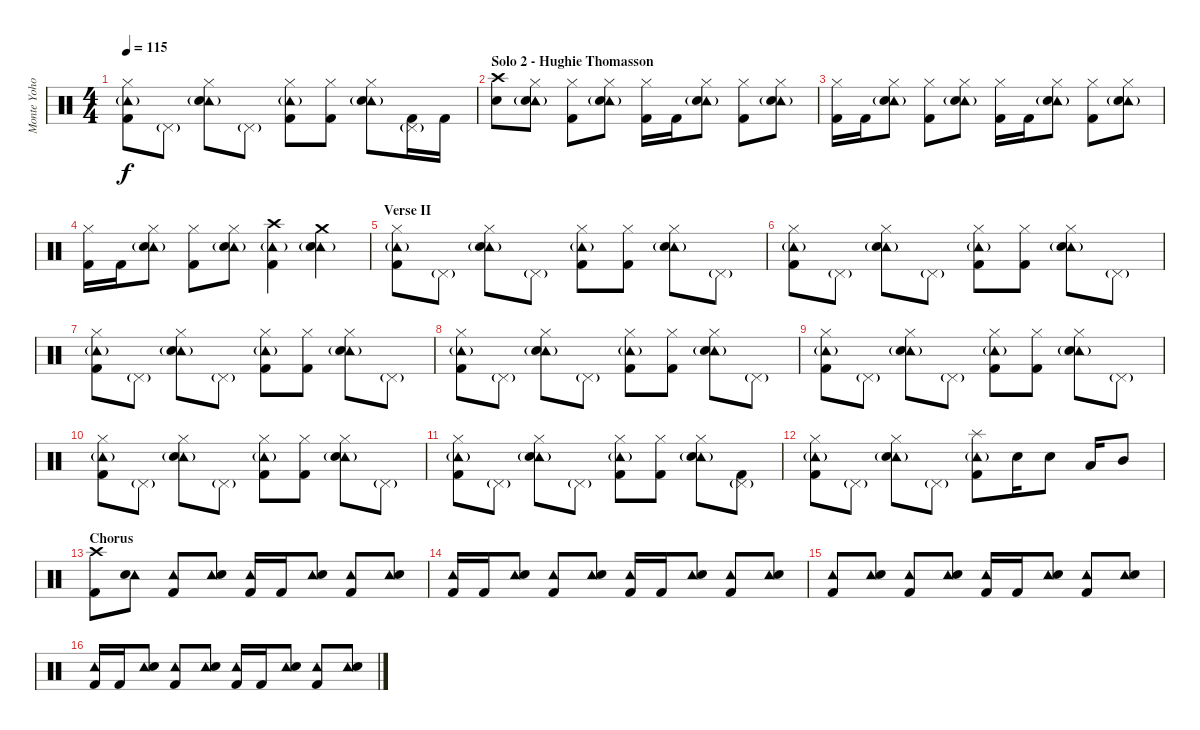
\track ("Monte Yoho - Drums" "Monte Yoho") {instrument percussion}
\staff {score}
\articulation defaults
\ts (4 4)
\tempo 115
\clef neutral
\ks c
("Hi-Hat (closed)" "Tambourine (hit)"{g} "Kick (hit) 2").8{dy f} "Pedal Hi-Hat (hit)"{g}.8 ("Hi-Hat (closed)" "Tambourine (hit)"{g} "Snare (hit) 2").8 "Pedal Hi-Hat (hit)"{g}.8 ("Hi-Hat (closed)" "Tambourine (hit)"{g} "Kick (hit) 2").8 ("Hi-Hat (closed)" "Kick (hit) 2").8 ("Hi-Hat (closed)" "Tambourine (hit)"{g} "Snare (hit) 2").8 ("Pedal Hi-Hat (hit)"{g} "Kick (hit) 2").16 "Kick (hit) 2".16 |
\section ("" "Solo 2 - Hughie Thomasson")
("Crash high (hit)" "Snare (hit) 2").8 ("Hi-Hat (closed)" "Tambourine (hit)"{g} "Snare (hit) 2").8 ("Hi-Hat (closed)" "Kick (hit) 2").8 ("Hi-Hat (closed)" "Tambourine (hit)"{g} "Snare (hit) 2").8 ("Hi-Hat (closed)" "Kick (hit) 2").16 "Kick (hit) 2".16 ("Hi-Hat (closed)" "Tambourine (hit)"{g} "Snare (hit) 2").8 ("Hi-Hat (closed)" "Kick (hit) 2").8 ("Hi-Hat (closed)" "Tambourine (hit)"{g} "Snare (hit) 2").8 |
("Hi-Hat (closed)" "Kick (hit) 2").16 "Kick (hit) 2".16 ("Hi-Hat (closed)" "Tambourine (hit)"{g} "Snare (hit) 2").8 ("Hi-Hat (closed)" "Kick (hit) 2").8 ("Hi-Hat (closed)" "Tambourine (hit)"{g} "Snare (hit) 2").8 ("Hi-Hat (closed)" "Kick (hit) 2").16 "Kick (hit) 2".16 ("Hi-Hat (closed)" "Tambourine (hit)"{g} "Snare (hit) 2").8 ("Hi-Hat (closed)" "Kick (hit) 2").8 ("Hi-Hat (closed)" "Tambourine (hit)"{g} "Snare (hit) 2").8 |
("Hi-Hat (closed)" "Kick (hit) 2").16 "Kick (hit) 2".16 ("Hi-Hat (closed)" "Tambourine (hit)"{g} "Snare (hit) 2").8 ("Hi-Hat (closed)" "Kick (hit) 2").8 ("Hi-Hat (closed)" "Tambourine (hit)"{g} "Snare (hit) 2").8 ("Crash high (hit)" "Tambourine (hit)"{g} "Kick (hit) 2").4 ("Crash medium (hit)" "Tambourine (hit)"{g} "Snare (hit) 2").4 |
\section ("" "Verse II")
("Hi-Hat (closed)" "Tambourine (hit)"{g} "Kick (hit) 2").8 "Pedal Hi-Hat (hit)"{g}.8 ("Hi-Hat (closed)" "Tambourine (hit)"{g} "Snare (hit) 2").8 "Pedal Hi-Hat (hit)"{g}.8 ("Hi-Hat (closed)" "Tambourine (hit)"{g} "Kick (hit) 2").8 ("Hi-Hat (closed)" "Kick (hit) 2").8 ("Hi-Hat (closed)" "Tambourine (hit)"{g} "Snare (hit) 2").8 "Pedal Hi-Hat (hit)"{g}.8 |
("Hi-Hat (closed)" "Tambourine (hit)"{g} "Kick (hit) 2").8 "Pedal Hi-Hat (hit)"{g}.8 ("Hi-Hat (closed)" "Tambourine (hit)"{g} "Snare (hit) 2").8 "Pedal Hi-Hat (hit)"{g}.8 ("Hi-Hat (closed)" "Tambourine (hit)"{g} "Kick (hit) 2").8 ("Hi-Hat (closed)" "Kick (hit) 2").8 ("Hi-Hat (closed)" "Tambourine (hit)"{g} "Snare (hit) 2").8 "Pedal Hi-Hat (hit)"{g}.8 |
("Hi-Hat (closed)" "Tambourine (hit)"{g} "Kick (hit) 2").8 "Pedal Hi-Hat (hit)"{g}.8 ("Hi-Hat (closed)" "Tambourine (hit)"{g} "Snare (hit) 2").8 "Pedal Hi-Hat (hit)"{g}.8 ("Hi-Hat (closed)" "Tambourine (hit)"{g} "Kick (hit) 2").8 ("Hi-Hat (closed)" "Kick (hit) 2").8 ("Hi-Hat (closed)" "Tambourine (hit)"{g} "Snare (hit) 2").8 "Pedal Hi-Hat (hit)"{g}.8 |
("Hi-Hat (closed)" "Tambourine (hit)"{g} "Kick (hit) 2").8 "Pedal Hi-Hat (hit)"{g}.8 ("Hi-Hat (closed)" "Tambourine (hit)"{g} "Snare (hit) 2").8 "Pedal Hi-Hat (hit)"{g}.8 ("Hi-Hat (closed)" "Tambourine (hit)"{g} "Kick (hit) 2").8 ("Hi-Hat (closed)" "Kick (hit) 2").8 ("Hi-Hat (closed)" "Tambourine (hit)"{g} "Snare (hit) 2").8 "Pedal Hi-Hat (hit)"{g}.8 |
("Hi-Hat (closed)" "Tambourine (hit)"{g} "Kick (hit) 2").8 "Pedal Hi-Hat (hit)"{g}.8 ("Hi-Hat (closed)" "Tambourine (hit)"{g} "Snare (hit) 2").8 "Pedal Hi-Hat (hit)"{g}.8 ("Hi-Hat (closed)" "Tambourine (hit)"{g} "Kick (hit) 2").8 ("Hi-Hat (closed)" "Kick (hit) 2").8 ("Hi-Hat (closed)" "Tambourine (hit)"{g} "Snare (hit) 2").8 "Pedal Hi-Hat (hit)"{g}.8 |
("Hi-Hat (closed)" "Tambourine (hit)"{g} "Kick (hit) 2").8 "Pedal Hi-Hat (hit)"{g}.8 ("Hi-Hat (closed)" "Tambourine (hit)"{g} "Snare (hit) 2").8 "Pedal Hi-Hat (hit)"{g}.8 ("Hi-Hat (closed)" "Tambourine (hit)"{g} "Kick (hit) 2").8 ("Hi-Hat (closed)" "Kick (hit) 2").8 ("Hi-Hat (closed)" "Tambourine (hit)"{g} "Snare (hit) 2").8 "Pedal Hi-Hat (hit)"{g}.8 |
("Hi-Hat (closed)" "Tambourine (hit)"{g} "Kick (hit) 2").8 "Pedal Hi-Hat (hit)"{g}.8 ("Hi-Hat (closed)" "Tambourine (hit)"{g} "Snare (hit) 2").8 "Pedal Hi-Hat (hit)"{g}.8 ("Hi-Hat (closed)" "Tambourine (hit)"{g} "Kick (hit) 2").8 ("Hi-Hat (closed)" "Kick (hit) 2").8 ("Hi-Hat (closed)" "Tambourine (hit)"{g} "Snare (hit) 2").8 ("Pedal Hi-Hat (hit)"{g} "Kick (hit) 2").8 |
("Hi-Hat (closed)" "Tambourine (hit)"{g} "Kick (hit) 2").8 "Pedal Hi-Hat (hit)"{g}.8 ("Hi-Hat (closed)" "Tambourine (hit)"{g} "Snare (hit) 2").8 "Pedal Hi-Hat (hit)"{g}.8 ("Splash (hit)" "Tambourine (hit)"{g} "Kick (hit) 2").8 "Snare (hit) 2".16 "Snare (hit) 2".8 "Low Tom (hit)".16 "Mid Tom (hit)".8 |
\section ("" "Chorus")
("Crash high (hit)" "Kick (hit) 2").8 ("Tambourine (hit)" "Snare (hit) 2").8 ("Tambourine (hit)" "Kick (hit) 2").8 ("Tambourine (hit)" "Snare (hit) 2").8 ("Tambourine (hit)" "Kick (hit) 2").16 "Kick (hit) 2".16 ("Tambourine (hit)" "Snare (hit) 2").8 ("Tambourine (hit)" "Kick (hit) 2").8 ("Tambourine (hit)" "Snare (hit) 2").8 |
("Tambourine (hit)" "Kick (hit) 2").16 "Kick (hit) 2".16 ("Tambourine (hit)" "Snare (hit) 2").8 ("Tambourine (hit)" "Kick (hit) 2").8 ("Tambourine (hit)" "Snare (hit) 2").8 ("Tambourine (hit)" "Kick (hit) 2").16 "Kick (hit) 2".16 ("Tambourine (hit)" "Snare (hit) 2").8 ("Tambourine (hit)" "Kick (hit) 2").8 ("Tambourine (hit)" "Snare (hit) 2").8 |
("Tambourine (hit)" "Kick (hit) 2").8 ("Tambourine (hit)" "Snare (hit) 2").8 ("Tambourine (hit)" "Kick (hit) 2").8 ("Tambourine (hit)" "Snare (hit) 2").8 ("Tambourine (hit)" "Kick (hit) 2").16 "Kick (hit) 2".16 ("Tambourine (hit)" "Snare (hit) 2").8 ("Tambourine (hit)" "Kick (hit) 2").8 ("Tambourine (hit)" "Snare (hit) 2").8 |
("Tambourine (hit)" "Kick (hit) 2").16 "Kick (hit) 2".16 ("Tambourine (hit)" "Snare (hit) 2").8 ("Tambourine (hit)" "Kick (hit) 2").8 ("Tambourine (hit)" "Snare (hit) 2").8 ("Tambourine (hit)" "Kick (hit) 2").16 "Kick (hit) 2".16 ("Tambourine (hit)" "Snare (hit) 2").8 ("Tambourine (hit)" "Kick (hit) 2").8 ("Tambourine (hit)" "Snare (hit) 2").8
